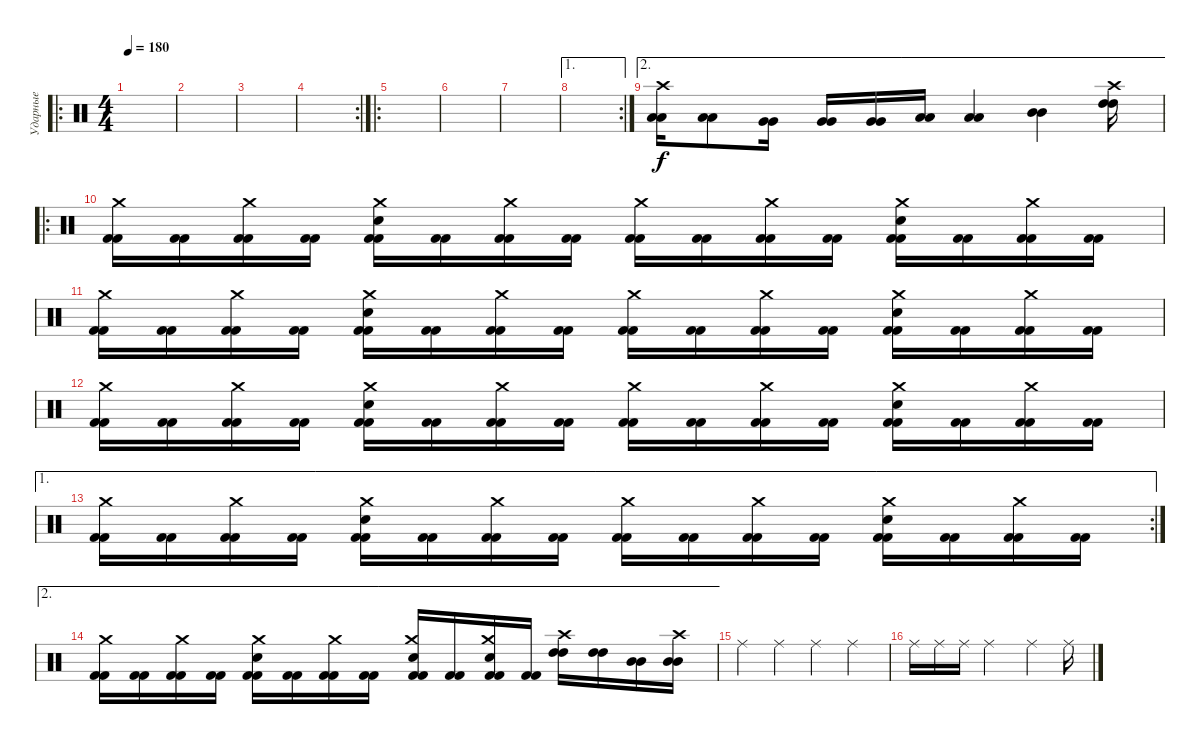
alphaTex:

\track ("Ударные" "Ударные") {instrument percussion}
\staff {score}
\articulation defaults
\ro
\ts (4 4)
\tempo 180
\clef neutral
\ks c
|
|
|
\rc 2
|
\ro
|
|
|
\ae 1
\rc 2
|
\ae 2
("Crash high (hit)" "Low Floor Tom (hit)" "Low Floor Tom (hit)").16 ("Low Floor Tom (hit)" "Low Floor Tom (hit)").8 ("Very Low Tom (hit)" "Very Low Tom (hit)").16 ("Very Low Tom (hit)" "Very Low Tom (hit)").16 ("Very Low Tom (hit)" "Very Low Tom (hit)").16 ("Low Tom (hit)" "Low Tom (hit)").16 ("Low Tom (hit)" "Low Tom (hit)").4 ("Mid Tom (hit)" "Mid Tom (hit)").4 ("Crash high (hit)" "High Tom (hit)" "High Tom (hit)").16 |
\ro
("Kick (hit) 2" "Crash medium (hit)" "Kick (hit) 2").16 ("Kick (hit) 2" "Kick (hit) 2").16 ("Kick (hit) 2" "Crash medium (hit)" "Kick (hit) 2").16 ("Kick (hit) 2" "Kick (hit) 2").16 ("Kick (hit) 2" "Crash medium (hit)" "Electric Snare (hit)" "Kick (hit) 2").16 ("Kick (hit) 2" "Kick (hit) 2").16 ("Kick (hit) 2" "Crash medium (hit)" "Kick (hit) 2").16 ("Kick (hit) 2" "Kick (hit) 2").16 ("Kick (hit) 2" "Crash medium (hit)" "Kick (hit) 2").16 ("Kick (hit) 2" "Kick (hit) 2").16 ("Kick (hit) 2" "Crash medium (hit)" "Kick (hit) 2").16 ("Kick (hit) 2" "Kick (hit) 2").16 ("Kick (hit) 2" "Crash medium (hit)" "Electric Snare (hit)" "Kick (hit) 2").16 ("Kick (hit) 2" "Kick (hit) 2").16 ("Kick (hit) 2" "Crash medium (hit)" "Kick (hit) 2").16 ("Kick (hit) 2" "Kick (hit) 2").16 |
("Kick (hit) 2" "Crash medium (hit)" "Kick (hit) 2").16 ("Kick (hit) 2" "Kick (hit) 2").16 ("Kick (hit) 2" "Crash medium (hit)" "Kick (hit) 2").16 ("Kick (hit) 2" "Kick (hit) 2").16 ("Kick (hit) 2" "Crash medium (hit)" "Electric Snare (hit)" "Kick (hit) 2").16 ("Kick (hit) 2" "Kick (hit) 2").16 ("Kick (hit) 2" "Crash medium (hit)" "Kick (hit) 2").16 ("Kick (hit) 2" "Kick (hit) 2").16 ("Kick (hit) 2" "Crash medium (hit)" "Kick (hit) 2").16 ("Kick (hit) 2" "Kick (hit) 2").16 ("Kick (hit) 2" "Crash medium (hit)" "Kick (hit) 2").16 ("Kick (hit) 2" "Kick (hit) 2").16 ("Kick (hit) 2" "Crash medium (hit)" "Electric Snare (hit)" "Kick (hit) 2").16 ("Kick (hit) 2" "Kick (hit) 2").16 ("Kick (hit) 2" "Crash medium (hit)" "Kick (hit) 2").16 ("Kick (hit) 2" "Kick (hit) 2").16 |
("Kick (hit) 2" "Crash medium (hit)" "Kick (hit) 2").16 ("Kick (hit) 2" "Kick (hit) 2").16 ("Kick (hit) 2" "Crash medium (hit)" "Kick (hit) 2").16 ("Kick (hit) 2" "Kick (hit) 2").16 ("Kick (hit) 2" "Crash medium (hit)" "Electric Snare (hit)" "Kick (hit) 2").16 ("Kick (hit) 2" "Kick (hit) 2").16 ("Kick (hit) 2" "Crash medium (hit)" "Kick (hit) 2").16 ("Kick (hit) 2" "Kick (hit) 2").16 ("Kick (hit) 2" "Crash medium (hit)" "Kick (hit) 2").16 ("Kick (hit) 2" "Kick (hit) 2").16 ("Kick (hit) 2" "Crash medium (hit)" "Kick (hit) 2").16 ("Kick (hit) 2" "Kick (hit) 2").16 ("Kick (hit) 2" "Crash medium (hit)" "Electric Snare (hit)" "Kick (hit) 2").16 ("Kick (hit) 2" "Kick (hit) 2").16 ("Kick (hit) 2" "Crash medium (hit)" "Kick (hit) 2").16 ("Kick (hit) 2" "Kick (hit) 2").16 |
\ae 1
\rc 2
("Kick (hit) 2" "Crash medium (hit)" "Kick (hit) 2").16 ("Kick (hit) 2" "Kick (hit) 2").16 ("Kick (hit) 2" "Crash medium (hit)" "Kick (hit) 2").16 ("Kick (hit) 2" "Kick (hit) 2").16 ("Kick (hit) 2" "Crash medium (hit)" "Electric Snare (hit)" "Kick (hit) 2").16 ("Kick (hit) 2" "Kick (hit) 2").16 ("Kick (hit) 2" "Crash medium (hit)" "Kick (hit) 2").16 ("Kick (hit) 2" "Kick (hit) 2").16 ("Kick (hit) 2" "Crash medium (hit)" "Kick (hit) 2").16 ("Kick (hit) 2" "Kick (hit) 2").16 ("Kick (hit) 2" "Crash medium (hit)" "Kick (hit) 2").16 ("Kick (hit) 2" "Kick (hit) 2").16 ("Kick (hit) 2" "Crash medium (hit)" "Electric Snare (hit)" "Kick (hit) 2").16 ("Kick (hit) 2" "Kick (hit) 2").16 ("Kick (hit) 2" "Crash medium (hit)" "Kick (hit) 2").16 ("Kick (hit) 2" "Kick (hit) 2").16 |
\ae 2
("Kick (hit) 2" "Crash medium (hit)" "Kick (hit) 2").16 ("Kick (hit) 2" "Kick (hit) 2").16 ("Kick (hit) 2" "Crash medium (hit)" "Kick (hit) 2").16 ("Kick (hit) 2" "Kick (hit) 2").16 ("Kick (hit) 2" "Crash medium (hit)" "Electric Snare (hit)" "Kick (hit) 2").16 ("Kick (hit) 2" "Kick (hit) 2").16 ("Kick (hit) 2" "Crash medium (hit)" "Kick (hit) 2").16 ("Kick (hit) 2" "Kick (hit) 2").16 ("Kick (hit) 2" "Crash medium (hit)" "Electric Snare (hit)" "Kick (hit) 2").16 ("Kick (hit) 2" "Kick (hit) 2").16 ("Kick (hit) 2" "Crash medium (hit)" "Electric Snare (hit)" "Kick (hit) 2").16 ("Kick (hit) 2" "Kick (hit) 2").16 ("Crash high (hit)" "High Tom (hit)" "High Tom (hit)").16 ("High Tom (hit)" "High Tom (hit)").16 ("Mid Tom (hit)" "Mid Tom (hit)").16 ("Crash high (hit)" "Mid Tom (hit)" "Mid Tom (hit)").16 |
"Ride (middle)".4 "Ride (middle)".4 "Ride (middle)".4 "Ride (middle)".4 |
"Ride (middle)".16 "Ride (middle)".16 "Ride (middle)".16 "Ride (middle)".2 "Ride (middle)".4 "Ride (middle)".16
